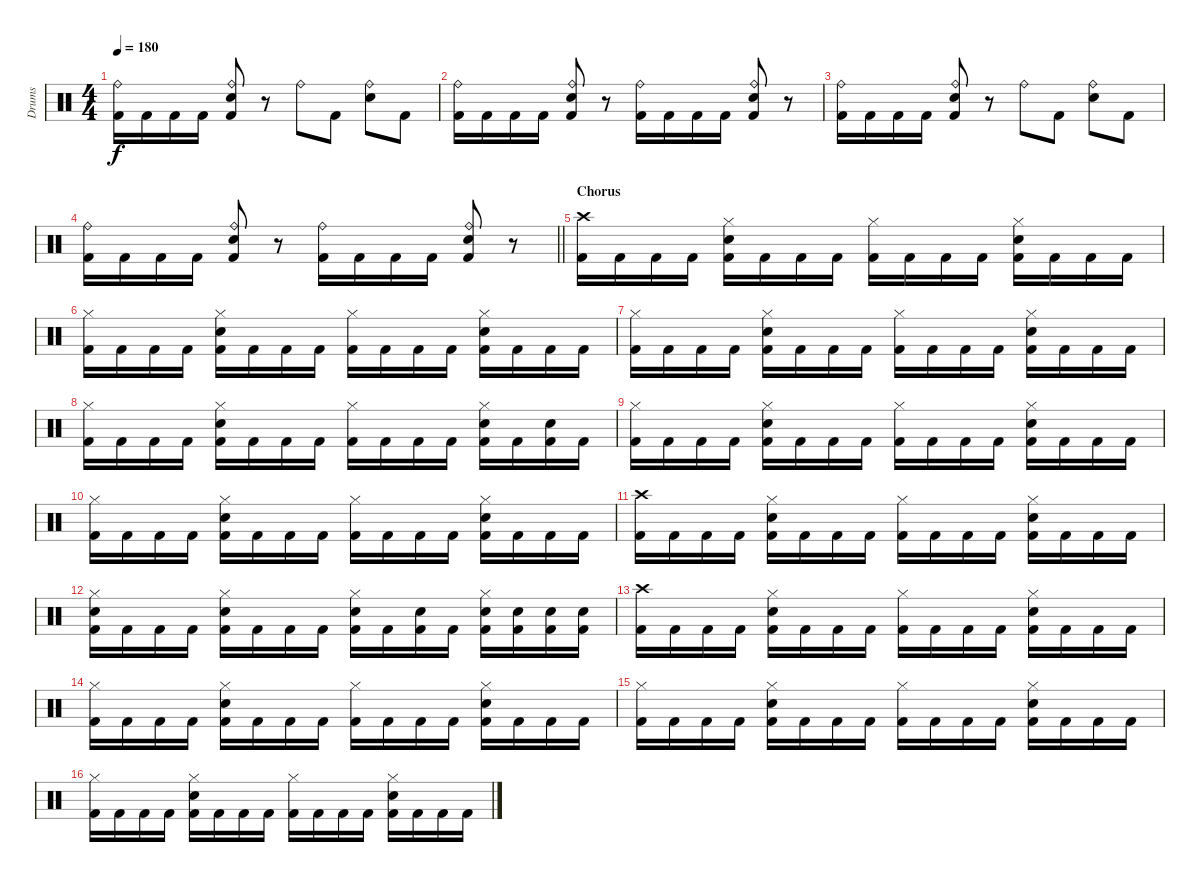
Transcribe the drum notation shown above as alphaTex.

\track ("Drums " "Drums ") {instrument percussion}
\staff {score}
\articulation defaults
\ts (4 4)
\tempo 180
\clef neutral
\ks c
("Kick (hit) 2" "Ride (bell)").16{dy f} "Kick (hit) 2".16 "Kick (hit) 2".16 "Kick (hit) 2".16 ("Kick (hit) 2" "Ride (bell)" "Electric Snare (hit)").8 r.8 "Ride (bell)".8 "Kick (hit) 2".8 ("Ride (bell)" "Electric Snare (hit)").8 "Kick (hit) 2".8 |
("Kick (hit) 2" "Ride (bell)").16 "Kick (hit) 2".16 "Kick (hit) 2".16 "Kick (hit) 2".16 ("Kick (hit) 2" "Ride (bell)" "Electric Snare (hit)").8 r.8 ("Kick (hit) 2" "Ride (bell)").16 "Kick (hit) 2".16 "Kick (hit) 2".16 "Kick (hit) 2".16 ("Kick (hit) 2" "Ride (bell)" "Electric Snare (hit)").8 r.8 |
("Kick (hit) 2" "Ride (bell)").16 "Kick (hit) 2".16 "Kick (hit) 2".16 "Kick (hit) 2".16 ("Kick (hit) 2" "Ride (bell)" "Electric Snare (hit)").8 r.8 "Ride (bell)".8 "Kick (hit) 2".8 ("Ride (bell)" "Electric Snare (hit)").8 "Kick (hit) 2".8 |
\barLineRight lightlight
("Kick (hit) 2" "Ride (bell)").16 "Kick (hit) 2".16 "Kick (hit) 2".16 "Kick (hit) 2".16 ("Kick (hit) 2" "Ride (bell)" "Electric Snare (hit)").8 r.8 ("Kick (hit) 2" "Ride (bell)").16 "Kick (hit) 2".16 "Kick (hit) 2".16 "Kick (hit) 2".16 ("Kick (hit) 2" "Ride (bell)" "Electric Snare (hit)").8 r.8 |
\section ("" "Chorus")
("Kick (hit) 2" "Crash high (hit)").16 "Kick (hit) 2".16 "Kick (hit) 2".16 "Kick (hit) 2".16 ("Kick (hit) 2" "Hi-Hat (closed)" "Electric Snare (hit)").16 "Kick (hit) 2".16 "Kick (hit) 2".16 "Kick (hit) 2".16 ("Kick (hit) 2" "Hi-Hat (closed)").16 "Kick (hit) 2".16 "Kick (hit) 2".16 "Kick (hit) 2".16 ("Kick (hit) 2" "Hi-Hat (closed)" "Electric Snare (hit)").16 "Kick (hit) 2".16 "Kick (hit) 2".16 "Kick (hit) 2".16 |
("Kick (hit) 2" "Hi-Hat (closed)").16 "Kick (hit) 2".16 "Kick (hit) 2".16 "Kick (hit) 2".16 ("Kick (hit) 2" "Hi-Hat (closed)" "Electric Snare (hit)").16 "Kick (hit) 2".16 "Kick (hit) 2".16 "Kick (hit) 2".16 ("Kick (hit) 2" "Hi-Hat (closed)").16 "Kick (hit) 2".16 "Kick (hit) 2".16 "Kick (hit) 2".16 ("Kick (hit) 2" "Hi-Hat (closed)" "Electric Snare (hit)").16 "Kick (hit) 2".16 "Kick (hit) 2".16 "Kick (hit) 2".16 |
("Kick (hit) 2" "Hi-Hat (closed)").16 "Kick (hit) 2".16 "Kick (hit) 2".16 "Kick (hit) 2".16 ("Kick (hit) 2" "Hi-Hat (closed)" "Electric Snare (hit)").16 "Kick (hit) 2".16 "Kick (hit) 2".16 "Kick (hit) 2".16 ("Kick (hit) 2" "Hi-Hat (closed)").16 "Kick (hit) 2".16 "Kick (hit) 2".16 "Kick (hit) 2".16 ("Kick (hit) 2" "Hi-Hat (closed)" "Electric Snare (hit)").16 "Kick (hit) 2".16 "Kick (hit) 2".16 "Kick (hit) 2".16 |
("Kick (hit) 2" "Hi-Hat (closed)").16 "Kick (hit) 2".16 "Kick (hit) 2".16 "Kick (hit) 2".16 ("Kick (hit) 2" "Hi-Hat (closed)" "Electric Snare (hit)").16 "Kick (hit) 2".16 "Kick (hit) 2".16 "Kick (hit) 2".16 ("Kick (hit) 2" "Hi-Hat (closed)").16 "Kick (hit) 2".16 "Kick (hit) 2".16 "Kick (hit) 2".16 ("Kick (hit) 2" "Hi-Hat (closed)" "Electric Snare (hit)").16 "Kick (hit) 2".16 ("Kick (hit) 2" "Electric Snare (hit)").16 "Kick (hit) 2".16 |
("Kick (hit) 2" "Hi-Hat (closed)").16 "Kick (hit) 2".16 "Kick (hit) 2".16 "Kick (hit) 2".16 ("Kick (hit) 2" "Hi-Hat (closed)" "Electric Snare (hit)").16 "Kick (hit) 2".16 "Kick (hit) 2".16 "Kick (hit) 2".16 ("Kick (hit) 2" "Hi-Hat (closed)").16 "Kick (hit) 2".16 "Kick (hit) 2".16 "Kick (hit) 2".16 ("Kick (hit) 2" "Hi-Hat (closed)" "Electric Snare (hit)").16 "Kick (hit) 2".16 "Kick (hit) 2".16 "Kick (hit) 2".16 |
("Kick (hit) 2" "Hi-Hat (closed)").16 "Kick (hit) 2".16 "Kick (hit) 2".16 "Kick (hit) 2".16 ("Kick (hit) 2" "Hi-Hat (closed)" "Electric Snare (hit)").16 "Kick (hit) 2".16 "Kick (hit) 2".16 "Kick (hit) 2".16 ("Kick (hit) 2" "Hi-Hat (closed)").16 "Kick (hit) 2".16 "Kick (hit) 2".16 "Kick (hit) 2".16 ("Kick (hit) 2" "Hi-Hat (closed)" "Electric Snare (hit)").16 "Kick (hit) 2".16 "Kick (hit) 2".16 "Kick (hit) 2".16 |
("Kick (hit) 2" "Crash high (hit)").16 "Kick (hit) 2".16 "Kick (hit) 2".16 "Kick (hit) 2".16 ("Kick (hit) 2" "Hi-Hat (closed)" "Electric Snare (hit)").16 "Kick (hit) 2".16 "Kick (hit) 2".16 "Kick (hit) 2".16 ("Kick (hit) 2" "Hi-Hat (closed)").16 "Kick (hit) 2".16 "Kick (hit) 2".16 "Kick (hit) 2".16 ("Kick (hit) 2" "Hi-Hat (closed)" "Electric Snare (hit)").16 "Kick (hit) 2".16 "Kick (hit) 2".16 "Kick (hit) 2".16 |
("Kick (hit) 2" "Hi-Hat (closed)" "Electric Snare (hit)").16 "Kick (hit) 2".16 "Kick (hit) 2".16 "Kick (hit) 2".16 ("Kick (hit) 2" "Hi-Hat (closed)" "Electric Snare (hit)").16 "Kick (hit) 2".16 "Kick (hit) 2".16 "Kick (hit) 2".16 ("Kick (hit) 2" "Hi-Hat (closed)" "Electric Snare (hit)").16 "Kick (hit) 2".16 ("Kick (hit) 2" "Electric Snare (hit)").16 "Kick (hit) 2".16 ("Kick (hit) 2" "Hi-Hat (closed)" "Electric Snare (hit)").16 ("Kick (hit) 2" "Electric Snare (hit)").16 ("Kick (hit) 2" "Electric Snare (hit)").16 ("Kick (hit) 2" "Electric Snare (hit)").16 |
("Kick (hit) 2" "Crash high (hit)").16 "Kick (hit) 2".16 "Kick (hit) 2".16 "Kick (hit) 2".16 ("Kick (hit) 2" "Hi-Hat (closed)" "Electric Snare (hit)").16 "Kick (hit) 2".16 "Kick (hit) 2".16 "Kick (hit) 2".16 ("Kick (hit) 2" "Hi-Hat (closed)").16 "Kick (hit) 2".16 "Kick (hit) 2".16 "Kick (hit) 2".16 ("Kick (hit) 2" "Hi-Hat (closed)" "Electric Snare (hit)").16 "Kick (hit) 2".16 "Kick (hit) 2".16 "Kick (hit) 2".16 |
("Kick (hit) 2" "Hi-Hat (closed)").16 "Kick (hit) 2".16 "Kick (hit) 2".16 "Kick (hit) 2".16 ("Kick (hit) 2" "Hi-Hat (closed)" "Electric Snare (hit)").16 "Kick (hit) 2".16 "Kick (hit) 2".16 "Kick (hit) 2".16 ("Kick (hit) 2" "Hi-Hat (closed)").16 "Kick (hit) 2".16 "Kick (hit) 2".16 "Kick (hit) 2".16 ("Kick (hit) 2" "Hi-Hat (closed)" "Electric Snare (hit)").16 "Kick (hit) 2".16 "Kick (hit) 2".16 "Kick (hit) 2".16 |
("Kick (hit) 2" "Hi-Hat (closed)").16 "Kick (hit) 2".16 "Kick (hit) 2".16 "Kick (hit) 2".16 ("Kick (hit) 2" "Hi-Hat (closed)" "Electric Snare (hit)").16 "Kick (hit) 2".16 "Kick (hit) 2".16 "Kick (hit) 2".16 ("Kick (hit) 2" "Hi-Hat (closed)").16 "Kick (hit) 2".16 "Kick (hit) 2".16 "Kick (hit) 2".16 ("Kick (hit) 2" "Hi-Hat (closed)" "Electric Snare (hit)").16 "Kick (hit) 2".16 "Kick (hit) 2".16 "Kick (hit) 2".16 |
("Kick (hit) 2" "Hi-Hat (closed)").16 "Kick (hit) 2".16 "Kick (hit) 2".16 "Kick (hit) 2".16 ("Kick (hit) 2" "Hi-Hat (closed)" "Electric Snare (hit)").16 "Kick (hit) 2".16 "Kick (hit) 2".16 "Kick (hit) 2".16 ("Kick (hit) 2" "Hi-Hat (closed)").16 "Kick (hit) 2".16 "Kick (hit) 2".16 "Kick (hit) 2".16 ("Kick (hit) 2" "Hi-Hat (closed)" "Electric Snare (hit)").16 "Kick (hit) 2".16 "Kick (hit) 2".16 "Kick (hit) 2".16
